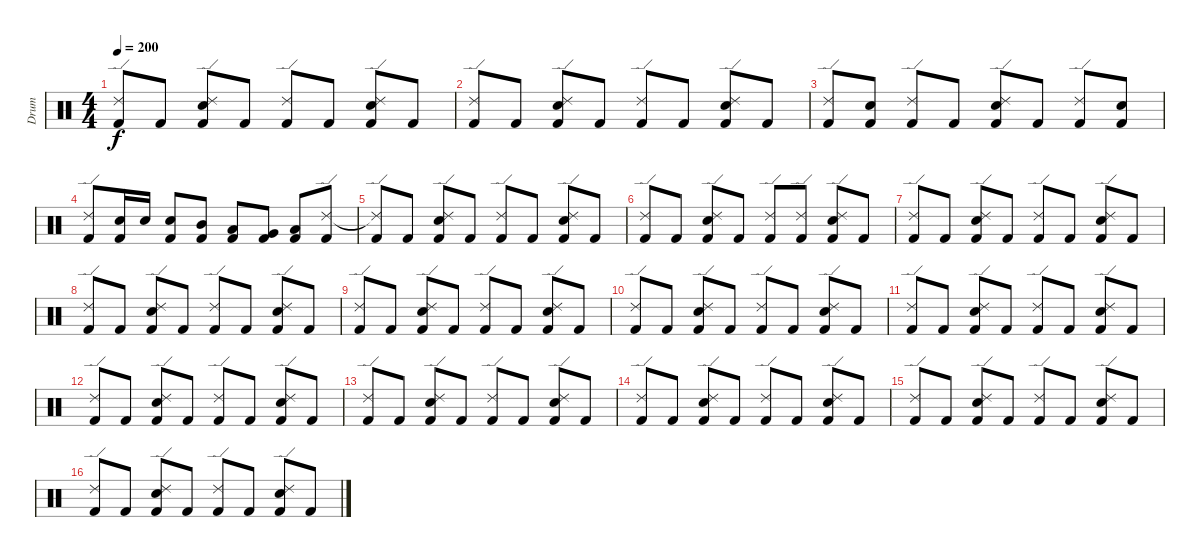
\track ("Drum" "Drum") {instrument percussion}
\staff {score}
\articulation defaults
\ts (4 4)
\tempo 200
\clef neutral
\ks c
("Ride (edge) 2" "Kick (hit) 2").8{dy f} "Kick (hit) 2".8 ("Ride (edge) 2" "Electric Snare (hit)" "Kick (hit) 2").8 "Kick (hit) 2".8 ("Ride (edge) 2" "Kick (hit) 2").8 "Kick (hit) 2".8 ("Ride (edge) 2" "Electric Snare (hit)" "Kick (hit) 2").8 "Kick (hit) 2".8 |
("Ride (edge) 2" "Kick (hit) 2").8 "Kick (hit) 2".8 ("Ride (edge) 2" "Electric Snare (hit)" "Kick (hit) 2").8 "Kick (hit) 2".8 ("Ride (edge) 2" "Kick (hit) 2").8 "Kick (hit) 2".8 ("Ride (edge) 2" "Electric Snare (hit)" "Kick (hit) 2").8 "Kick (hit) 2".8 |
("Ride (edge) 2" "Kick (hit) 2").8 ("Electric Snare (hit)" "Kick (hit) 2").8 ("Ride (edge) 2" "Kick (hit) 2").8 "Kick (hit) 2".8 ("Ride (edge) 2" "Electric Snare (hit)" "Kick (hit) 2").8 "Kick (hit) 2".8 ("Ride (edge) 2" "Kick (hit) 2").8 ("Electric Snare (hit)" "Kick (hit) 2").8 |
("Ride (edge) 2" "Kick (hit) 2").8 ("Electric Snare (hit)" "Kick (hit) 2").16 "Electric Snare (hit)".16 ("Electric Snare (hit)" "Kick (hit) 2").8 ("Mid Tom (hit)" "Kick (hit) 2").8 ("Low Tom (hit)" "Kick (hit) 2").8 ("Very Low Tom (hit)" "Kick (hit) 2").8 ("Low Floor Tom (hit)" "Kick (hit) 2").8 ("Ride (edge) 2" "Kick (hit) 2").8 |
("Ride (edge) 2"{t} "Kick (hit) 2").8 "Kick (hit) 2".8 ("Ride (edge) 2" "Electric Snare (hit)" "Kick (hit) 2").8 "Kick (hit) 2".8 ("Ride (edge) 2" "Kick (hit) 2").8 "Kick (hit) 2".8 ("Ride (edge) 2" "Electric Snare (hit)" "Kick (hit) 2").8 "Kick (hit) 2".8 |
("Ride (edge) 2" "Kick (hit) 2").8 "Kick (hit) 2".8 ("Ride (edge) 2" "Electric Snare (hit)" "Kick (hit) 2").8 "Kick (hit) 2".8 ("Ride (edge) 2" "Kick (hit) 2").8 ("Ride (edge) 2" "Kick (hit) 2").8 ("Ride (edge) 2" "Electric Snare (hit)" "Kick (hit) 2").8 "Kick (hit) 2".8 |
("Ride (edge) 2" "Kick (hit) 2").8 "Kick (hit) 2".8 ("Ride (edge) 2" "Electric Snare (hit)" "Kick (hit) 2").8 "Kick (hit) 2".8 ("Ride (edge) 2" "Kick (hit) 2").8 "Kick (hit) 2".8 ("Ride (edge) 2" "Electric Snare (hit)" "Kick (hit) 2").8 "Kick (hit) 2".8 |
("Ride (edge) 2" "Kick (hit) 2").8 "Kick (hit) 2".8 ("Ride (edge) 2" "Electric Snare (hit)" "Kick (hit) 2").8 "Kick (hit) 2".8 ("Ride (edge) 2" "Kick (hit) 2").8 "Kick (hit) 2".8 ("Ride (edge) 2" "Electric Snare (hit)" "Kick (hit) 2").8 "Kick (hit) 2".8 |
("Ride (edge) 2" "Kick (hit) 2").8 "Kick (hit) 2".8 ("Ride (edge) 2" "Electric Snare (hit)" "Kick (hit) 2").8 "Kick (hit) 2".8 ("Ride (edge) 2" "Kick (hit) 2").8 "Kick (hit) 2".8 ("Ride (edge) 2" "Electric Snare (hit)" "Kick (hit) 2").8 "Kick (hit) 2".8 |
("Ride (edge) 2" "Kick (hit) 2").8 "Kick (hit) 2".8 ("Ride (edge) 2" "Electric Snare (hit)" "Kick (hit) 2").8 "Kick (hit) 2".8 ("Ride (edge) 2" "Kick (hit) 2").8 "Kick (hit) 2".8 ("Ride (edge) 2" "Electric Snare (hit)" "Kick (hit) 2").8 "Kick (hit) 2".8 |
("Ride (edge) 2" "Kick (hit) 2").8 "Kick (hit) 2".8 ("Ride (edge) 2" "Electric Snare (hit)" "Kick (hit) 2").8 "Kick (hit) 2".8 ("Ride (edge) 2" "Kick (hit) 2").8 "Kick (hit) 2".8 ("Ride (edge) 2" "Electric Snare (hit)" "Kick (hit) 2").8 "Kick (hit) 2".8 |
("Ride (edge) 2" "Kick (hit) 2").8 "Kick (hit) 2".8 ("Ride (edge) 2" "Electric Snare (hit)" "Kick (hit) 2").8 "Kick (hit) 2".8 ("Ride (edge) 2" "Kick (hit) 2").8 "Kick (hit) 2".8 ("Ride (edge) 2" "Electric Snare (hit)" "Kick (hit) 2").8 "Kick (hit) 2".8 |
("Ride (edge) 2" "Kick (hit) 2").8 "Kick (hit) 2".8 ("Ride (edge) 2" "Electric Snare (hit)" "Kick (hit) 2").8 "Kick (hit) 2".8 ("Ride (edge) 2" "Kick (hit) 2").8 "Kick (hit) 2".8 ("Ride (edge) 2" "Electric Snare (hit)" "Kick (hit) 2").8 "Kick (hit) 2".8 |
("Ride (edge) 2" "Kick (hit) 2").8 "Kick (hit) 2".8 ("Ride (edge) 2" "Electric Snare (hit)" "Kick (hit) 2").8 "Kick (hit) 2".8 ("Ride (edge) 2" "Kick (hit) 2").8 "Kick (hit) 2".8 ("Ride (edge) 2" "Electric Snare (hit)" "Kick (hit) 2").8 "Kick (hit) 2".8 |
("Ride (edge) 2" "Kick (hit) 2").8 "Kick (hit) 2".8 ("Ride (edge) 2" "Electric Snare (hit)" "Kick (hit) 2").8 "Kick (hit) 2".8 ("Ride (edge) 2" "Kick (hit) 2").8 "Kick (hit) 2".8 ("Ride (edge) 2" "Electric Snare (hit)" "Kick (hit) 2").8 "Kick (hit) 2".8 |
("Ride (edge) 2" "Kick (hit) 2").8 "Kick (hit) 2".8 ("Ride (edge) 2" "Electric Snare (hit)" "Kick (hit) 2").8 "Kick (hit) 2".8 ("Ride (edge) 2" "Kick (hit) 2").8 "Kick (hit) 2".8 ("Ride (edge) 2" "Electric Snare (hit)" "Kick (hit) 2").8 "Kick (hit) 2".8
